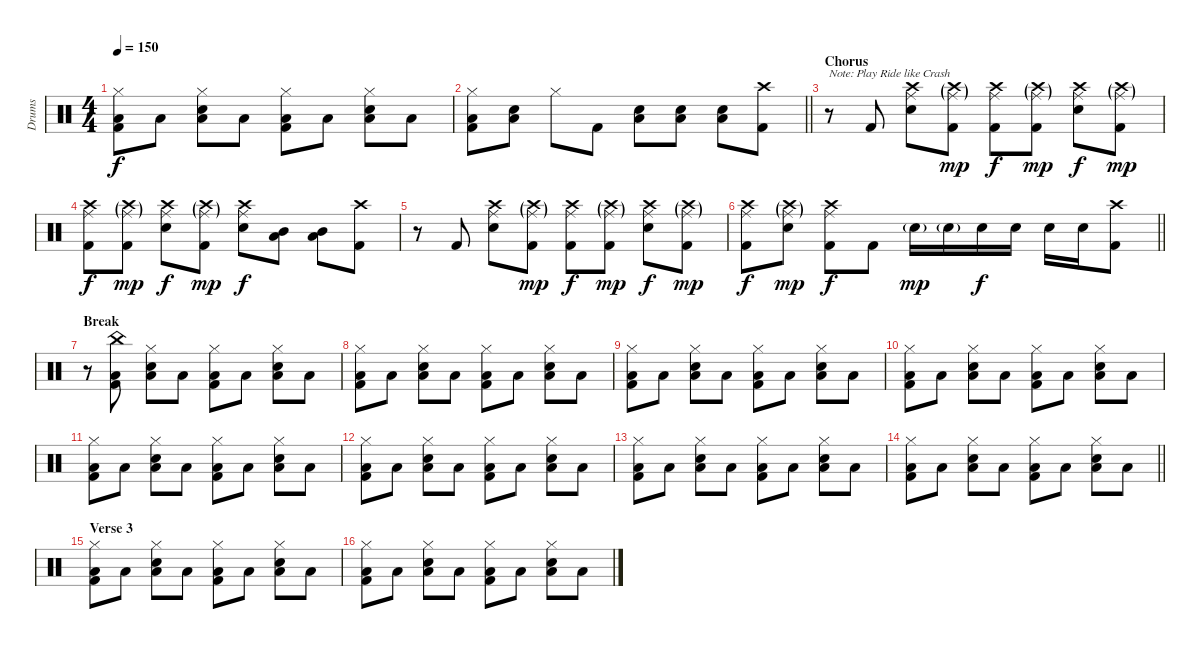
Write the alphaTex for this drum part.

\track ("Drums" "Drums") {instrument percussion}
\staff {score}
\articulation defaults
\ts (4 4)
\tempo 150
\clef neutral
\ks c
("Hi-Hat (closed)" "Low Tom (hit)" "Kick (hit) 2").8{dy f} "Low Tom (hit)".8 ("Hi-Hat (closed)" "Low Tom (hit)" "Electric Snare (hit)").8 "Low Tom (hit)".8 ("Hi-Hat (closed)" "Low Tom (hit)" "Kick (hit) 2").8 "Low Tom (hit)".8 ("Hi-Hat (closed)" "Low Tom (hit)" "Electric Snare (hit)").8 "Low Tom (hit)".8 |
\barLineRight lightlight
("Hi-Hat (closed)" "Low Tom (hit)" "Kick (hit) 2").8 ("Low Tom (hit)" "Electric Snare (hit)").8 "Hi-Hat (closed)".8 "Kick (hit) 2".8 ("Low Tom (hit)" "Electric Snare (hit)").8 ("Low Tom (hit)" "Electric Snare (hit)").8 ("Low Tom (hit)" "Electric Snare (hit)").8 ("Crash high (hit)" "Kick (hit) 2").8 |
\section ("" "Chorus")
r.8{txt "Note: Play Ride like Crash"} "Kick (hit) 2".8 ("Ride (middle)" "Crash high (hit)" "Electric Snare (hit)").8 ("Ride (middle)"{g} "Crash high (hit)"{g} "Kick (hit) 2").8{dy mp} ("Ride (middle)" "Crash high (hit)" "Kick (hit) 2").8{dy f} ("Ride (middle)"{g} "Crash high (hit)"{g} "Kick (hit) 2").8{dy mp} ("Ride (middle)" "Crash high (hit)" "Electric Snare (hit)").8{dy f} ("Ride (middle)"{g} "Crash high (hit)"{g} "Kick (hit) 2").8{dy mp} |
("Ride (middle)" "Crash high (hit)" "Kick (hit) 2").8{dy f} ("Ride (middle)"{g} "Crash high (hit)"{g} "Kick (hit) 2").8{dy mp} ("Ride (middle)" "Crash high (hit)" "Electric Snare (hit)").8{dy f} ("Ride (middle)"{g} "Crash high (hit)"{g} "Kick (hit) 2").8{dy mp} ("Ride (middle)" "Crash high (hit)" "Electric Snare (hit)").8{dy f} ("Low Tom (hit)" "Mid Tom (hit)").8 ("Low Tom (hit)" "Mid Tom (hit)").8 ("Crash high (hit)" "Kick (hit) 2").8 |
r.8 "Kick (hit) 2".8 ("Ride (middle)" "Crash high (hit)" "Electric Snare (hit)").8 ("Ride (middle)"{g} "Crash high (hit)"{g} "Kick (hit) 2").8{dy mp} ("Ride (middle)" "Crash high (hit)" "Kick (hit) 2").8{dy f} ("Ride (middle)"{g} "Crash high (hit)"{g} "Kick (hit) 2").8{dy mp} ("Ride (middle)" "Crash high (hit)" "Electric Snare (hit)").8{dy f} ("Ride (middle)"{g} "Crash high (hit)"{g} "Kick (hit) 2").8{dy mp} |
\barLineRight lightlight
("Ride (middle)" "Crash high (hit)" "Kick (hit) 2").8{dy f} ("Ride (middle)"{g} "Crash high (hit)"{g} "Electric Snare (hit)").8{dy mp} ("Ride (middle)" "Crash high (hit)" "Kick (hit) 2").8{dy f} "Kick (hit) 2".8 "Electric Snare (hit)"{g}.16{dy mp} "Electric Snare (hit)"{g}.16 "Electric Snare (hit)".16{dy f} "Electric Snare (hit)".16 "Electric Snare (hit)".16 "Electric Snare (hit)".16 ("Crash high (hit)" "Kick (hit) 2").8 |
\section ("" "Break")
r.8 ("China (hit)" "Low Tom (hit)" "Kick (hit) 2").8 ("Hi-Hat (closed)" "Low Tom (hit)" "Electric Snare (hit)").8 "Low Tom (hit)".8 ("Hi-Hat (closed)" "Low Tom (hit)" "Kick (hit) 2").8 "Low Tom (hit)".8 ("Hi-Hat (closed)" "Low Tom (hit)" "Electric Snare (hit)").8 "Low Tom (hit)".8 |
("Hi-Hat (closed)" "Low Tom (hit)" "Kick (hit) 2").8 "Low Tom (hit)".8 ("Hi-Hat (closed)" "Low Tom (hit)" "Electric Snare (hit)").8 "Low Tom (hit)".8 ("Hi-Hat (closed)" "Low Tom (hit)" "Kick (hit) 2").8 "Low Tom (hit)".8 ("Hi-Hat (closed)" "Low Tom (hit)" "Electric Snare (hit)").8 "Low Tom (hit)".8 |
("Hi-Hat (closed)" "Low Tom (hit)" "Kick (hit) 2").8 "Low Tom (hit)".8 ("Hi-Hat (closed)" "Low Tom (hit)" "Electric Snare (hit)").8 "Low Tom (hit)".8 ("Hi-Hat (closed)" "Low Tom (hit)" "Kick (hit) 2").8 "Low Tom (hit)".8 ("Hi-Hat (closed)" "Low Tom (hit)" "Electric Snare (hit)").8 "Low Tom (hit)".8 |
("Hi-Hat (closed)" "Low Tom (hit)" "Kick (hit) 2").8 "Low Tom (hit)".8 ("Hi-Hat (closed)" "Low Tom (hit)" "Electric Snare (hit)").8 "Low Tom (hit)".8 ("Hi-Hat (closed)" "Low Tom (hit)" "Kick (hit) 2").8 "Low Tom (hit)".8 ("Hi-Hat (closed)" "Low Tom (hit)" "Electric Snare (hit)").8 "Low Tom (hit)".8 |
("Hi-Hat (closed)" "Low Tom (hit)" "Kick (hit) 2").8 "Low Tom (hit)".8 ("Hi-Hat (closed)" "Low Tom (hit)" "Electric Snare (hit)").8 "Low Tom (hit)".8 ("Hi-Hat (closed)" "Low Tom (hit)" "Kick (hit) 2").8 "Low Tom (hit)".8 ("Hi-Hat (closed)" "Low Tom (hit)" "Electric Snare (hit)").8 "Low Tom (hit)".8 |
("Hi-Hat (closed)" "Low Tom (hit)" "Kick (hit) 2").8 "Low Tom (hit)".8 ("Hi-Hat (closed)" "Low Tom (hit)" "Electric Snare (hit)").8 "Low Tom (hit)".8 ("Hi-Hat (closed)" "Low Tom (hit)" "Kick (hit) 2").8 "Low Tom (hit)".8 ("Hi-Hat (closed)" "Low Tom (hit)" "Electric Snare (hit)").8 "Low Tom (hit)".8 |
("Hi-Hat (closed)" "Low Tom (hit)" "Kick (hit) 2").8 "Low Tom (hit)".8 ("Hi-Hat (closed)" "Low Tom (hit)" "Electric Snare (hit)").8 "Low Tom (hit)".8 ("Hi-Hat (closed)" "Low Tom (hit)" "Kick (hit) 2").8 "Low Tom (hit)".8 ("Hi-Hat (closed)" "Low Tom (hit)" "Electric Snare (hit)").8 "Low Tom (hit)".8 |
\barLineRight lightlight
("Hi-Hat (closed)" "Low Tom (hit)" "Kick (hit) 2").8 "Low Tom (hit)".8 ("Hi-Hat (closed)" "Low Tom (hit)" "Electric Snare (hit)").8 "Low Tom (hit)".8 ("Hi-Hat (closed)" "Low Tom (hit)" "Kick (hit) 2").8 "Low Tom (hit)".8 ("Hi-Hat (closed)" "Low Tom (hit)" "Electric Snare (hit)").8 "Low Tom (hit)".8 |
\section ("" "Verse 3")
("Hi-Hat (closed)" "Low Tom (hit)" "Kick (hit) 2").8 "Low Tom (hit)".8 ("Hi-Hat (closed)" "Low Tom (hit)" "Electric Snare (hit)").8 "Low Tom (hit)".8 ("Hi-Hat (closed)" "Low Tom (hit)" "Kick (hit) 2").8 "Low Tom (hit)".8 ("Hi-Hat (closed)" "Low Tom (hit)" "Electric Snare (hit)").8 "Low Tom (hit)".8 |
("Hi-Hat (closed)" "Low Tom (hit)" "Kick (hit) 2").8 "Low Tom (hit)".8 ("Hi-Hat (closed)" "Low Tom (hit)" "Electric Snare (hit)").8 "Low Tom (hit)".8 ("Hi-Hat (closed)" "Low Tom (hit)" "Kick (hit) 2").8 "Low Tom (hit)".8 ("Hi-Hat (closed)" "Low Tom (hit)" "Electric Snare (hit)").8 "Low Tom (hit)".8
